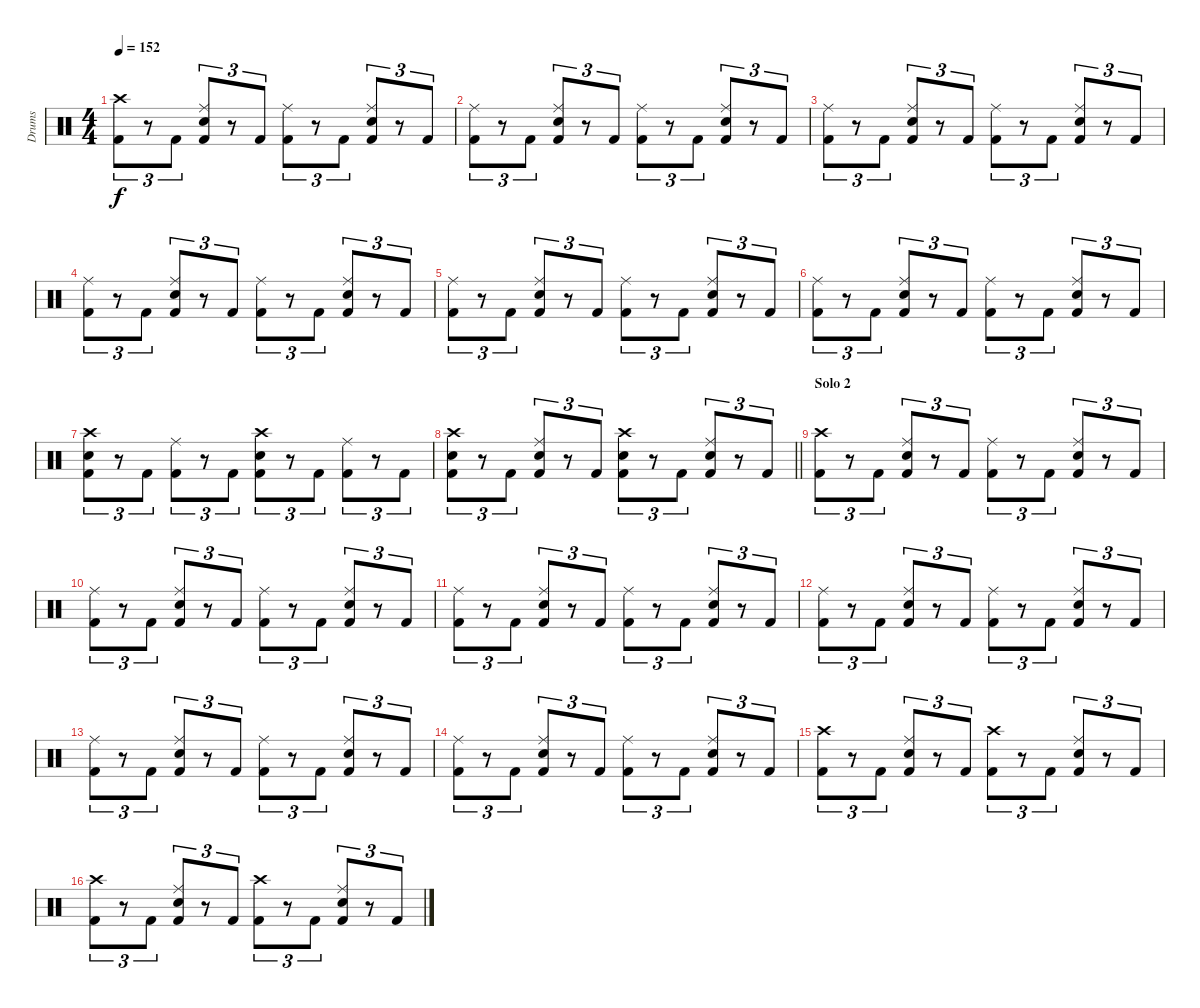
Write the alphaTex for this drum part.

\track ("Drums" "Drums") {instrument percussion}
\staff {score}
\articulation defaults
\ts (4 4)
\tempo 152
\clef neutral
\ks c
("Crash high (hit)" "Kick (hit) 2").8{tu (3 2) dy f} r.8{tu (3 2)} "Kick (hit) 2".8{tu (3 2)} ("Ride (middle)" "Snare (hit) 2" "Kick (hit) 2").8{tu (3 2)} r.8{tu (3 2)} "Kick (hit) 2".8{tu (3 2)} ("Ride (middle)" "Kick (hit) 2").8{tu (3 2)} r.8{tu (3 2)} "Kick (hit) 2".8{tu (3 2)} ("Ride (middle)" "Snare (hit) 2" "Kick (hit) 2").8{tu (3 2)} r.8{tu (3 2)} "Kick (hit) 2".8{tu (3 2)} |
("Ride (middle)" "Kick (hit) 2").8{tu (3 2)} r.8{tu (3 2)} "Kick (hit) 2".8{tu (3 2)} ("Ride (middle)" "Snare (hit) 2" "Kick (hit) 2").8{tu (3 2)} r.8{tu (3 2)} "Kick (hit) 2".8{tu (3 2)} ("Ride (middle)" "Kick (hit) 2").8{tu (3 2)} r.8{tu (3 2)} "Kick (hit) 2".8{tu (3 2)} ("Ride (middle)" "Snare (hit) 2" "Kick (hit) 2").8{tu (3 2)} r.8{tu (3 2)} "Kick (hit) 2".8{tu (3 2)} |
("Ride (middle)" "Kick (hit) 2").8{tu (3 2)} r.8{tu (3 2)} "Kick (hit) 2".8{tu (3 2)} ("Ride (middle)" "Snare (hit) 2" "Kick (hit) 2").8{tu (3 2)} r.8{tu (3 2)} "Kick (hit) 2".8{tu (3 2)} ("Ride (middle)" "Kick (hit) 2").8{tu (3 2)} r.8{tu (3 2)} "Kick (hit) 2".8{tu (3 2)} ("Ride (middle)" "Snare (hit) 2" "Kick (hit) 2").8{tu (3 2)} r.8{tu (3 2)} "Kick (hit) 2".8{tu (3 2)} |
("Ride (middle)" "Kick (hit) 2").8{tu (3 2)} r.8{tu (3 2)} "Kick (hit) 2".8{tu (3 2)} ("Ride (middle)" "Snare (hit) 2" "Kick (hit) 2").8{tu (3 2)} r.8{tu (3 2)} "Kick (hit) 2".8{tu (3 2)} ("Ride (middle)" "Kick (hit) 2").8{tu (3 2)} r.8{tu (3 2)} "Kick (hit) 2".8{tu (3 2)} ("Ride (middle)" "Snare (hit) 2" "Kick (hit) 2").8{tu (3 2)} r.8{tu (3 2)} "Kick (hit) 2".8{tu (3 2)} |
("Ride (middle)" "Kick (hit) 2").8{tu (3 2)} r.8{tu (3 2)} "Kick (hit) 2".8{tu (3 2)} ("Ride (middle)" "Snare (hit) 2" "Kick (hit) 2").8{tu (3 2)} r.8{tu (3 2)} "Kick (hit) 2".8{tu (3 2)} ("Ride (middle)" "Kick (hit) 2").8{tu (3 2)} r.8{tu (3 2)} "Kick (hit) 2".8{tu (3 2)} ("Ride (middle)" "Snare (hit) 2" "Kick (hit) 2").8{tu (3 2)} r.8{tu (3 2)} "Kick (hit) 2".8{tu (3 2)} |
("Ride (middle)" "Kick (hit) 2").8{tu (3 2)} r.8{tu (3 2)} "Kick (hit) 2".8{tu (3 2)} ("Ride (middle)" "Snare (hit) 2" "Kick (hit) 2").8{tu (3 2)} r.8{tu (3 2)} "Kick (hit) 2".8{tu (3 2)} ("Ride (middle)" "Kick (hit) 2").8{tu (3 2)} r.8{tu (3 2)} "Kick (hit) 2".8{tu (3 2)} ("Ride (middle)" "Snare (hit) 2" "Kick (hit) 2").8{tu (3 2)} r.8{tu (3 2)} "Kick (hit) 2".8{tu (3 2)} |
("Crash high (hit)" "Snare (hit) 2" "Kick (hit) 2").8{tu (3 2)} r.8{tu (3 2)} "Kick (hit) 2".8{tu (3 2)} ("Ride (middle)" "Kick (hit) 2").8{tu (3 2)} r.8{tu (3 2)} "Kick (hit) 2".8{tu (3 2)} ("Crash high (hit)" "Snare (hit) 2" "Kick (hit) 2").8{tu (3 2)} r.8{tu (3 2)} "Kick (hit) 2".8{tu (3 2)} ("Ride (middle)" "Kick (hit) 2").8{tu (3 2)} r.8{tu (3 2)} "Kick (hit) 2".8{tu (3 2)} |
\barLineRight lightlight
("Crash high (hit)" "Snare (hit) 2" "Kick (hit) 2").8{tu (3 2)} r.8{tu (3 2)} "Kick (hit) 2".8{tu (3 2)} ("Ride (middle)" "Snare (hit) 2" "Kick (hit) 2").8{tu (3 2)} r.8{tu (3 2)} "Kick (hit) 2".8{tu (3 2)} ("Crash high (hit)" "Snare (hit) 2" "Kick (hit) 2").8{tu (3 2)} r.8{tu (3 2)} "Kick (hit) 2".8{tu (3 2)} ("Ride (middle)" "Snare (hit) 2" "Kick (hit) 2").8{tu (3 2)} r.8{tu (3 2)} "Kick (hit) 2".8{tu (3 2)} |
\section ("" "Solo 2")
("Crash high (hit)" "Kick (hit) 2").8{tu (3 2)} r.8{tu (3 2)} "Kick (hit) 2".8{tu (3 2)} ("Ride (middle)" "Snare (hit) 2" "Kick (hit) 2").8{tu (3 2)} r.8{tu (3 2)} "Kick (hit) 2".8{tu (3 2)} ("Ride (middle)" "Kick (hit) 2").8{tu (3 2)} r.8{tu (3 2)} "Kick (hit) 2".8{tu (3 2)} ("Ride (middle)" "Snare (hit) 2" "Kick (hit) 2").8{tu (3 2)} r.8{tu (3 2)} "Kick (hit) 2".8{tu (3 2)} |
("Ride (middle)" "Kick (hit) 2").8{tu (3 2)} r.8{tu (3 2)} "Kick (hit) 2".8{tu (3 2)} ("Ride (middle)" "Snare (hit) 2" "Kick (hit) 2").8{tu (3 2)} r.8{tu (3 2)} "Kick (hit) 2".8{tu (3 2)} ("Ride (middle)" "Kick (hit) 2").8{tu (3 2)} r.8{tu (3 2)} "Kick (hit) 2".8{tu (3 2)} ("Ride (middle)" "Snare (hit) 2" "Kick (hit) 2").8{tu (3 2)} r.8{tu (3 2)} "Kick (hit) 2".8{tu (3 2)} |
("Ride (middle)" "Kick (hit) 2").8{tu (3 2)} r.8{tu (3 2)} "Kick (hit) 2".8{tu (3 2)} ("Ride (middle)" "Snare (hit) 2" "Kick (hit) 2").8{tu (3 2)} r.8{tu (3 2)} "Kick (hit) 2".8{tu (3 2)} ("Ride (middle)" "Kick (hit) 2").8{tu (3 2)} r.8{tu (3 2)} "Kick (hit) 2".8{tu (3 2)} ("Ride (middle)" "Snare (hit) 2" "Kick (hit) 2").8{tu (3 2)} r.8{tu (3 2)} "Kick (hit) 2".8{tu (3 2)} |
("Ride (middle)" "Kick (hit) 2").8{tu (3 2)} r.8{tu (3 2)} "Kick (hit) 2".8{tu (3 2)} ("Ride (middle)" "Snare (hit) 2" "Kick (hit) 2").8{tu (3 2)} r.8{tu (3 2)} "Kick (hit) 2".8{tu (3 2)} ("Ride (middle)" "Kick (hit) 2").8{tu (3 2)} r.8{tu (3 2)} "Kick (hit) 2".8{tu (3 2)} ("Ride (middle)" "Snare (hit) 2" "Kick (hit) 2").8{tu (3 2)} r.8{tu (3 2)} "Kick (hit) 2".8{tu (3 2)} |
("Ride (middle)" "Kick (hit) 2").8{tu (3 2)} r.8{tu (3 2)} "Kick (hit) 2".8{tu (3 2)} ("Ride (middle)" "Snare (hit) 2" "Kick (hit) 2").8{tu (3 2)} r.8{tu (3 2)} "Kick (hit) 2".8{tu (3 2)} ("Ride (middle)" "Kick (hit) 2").8{tu (3 2)} r.8{tu (3 2)} "Kick (hit) 2".8{tu (3 2)} ("Ride (middle)" "Snare (hit) 2" "Kick (hit) 2").8{tu (3 2)} r.8{tu (3 2)} "Kick (hit) 2".8{tu (3 2)} |
("Ride (middle)" "Kick (hit) 2").8{tu (3 2)} r.8{tu (3 2)} "Kick (hit) 2".8{tu (3 2)} ("Ride (middle)" "Snare (hit) 2" "Kick (hit) 2").8{tu (3 2)} r.8{tu (3 2)} "Kick (hit) 2".8{tu (3 2)} ("Ride (middle)" "Kick (hit) 2").8{tu (3 2)} r.8{tu (3 2)} "Kick (hit) 2".8{tu (3 2)} ("Ride (middle)" "Snare (hit) 2" "Kick (hit) 2").8{tu (3 2)} r.8{tu (3 2)} "Kick (hit) 2".8{tu (3 2)} |
("Crash high (hit)" "Kick (hit) 2").8{tu (3 2)} r.8{tu (3 2)} "Kick (hit) 2".8{tu (3 2)} ("Ride (middle)" "Snare (hit) 2" "Kick (hit) 2").8{tu (3 2)} r.8{tu (3 2)} "Kick (hit) 2".8{tu (3 2)} ("Crash high (hit)" "Kick (hit) 2").8{tu (3 2)} r.8{tu (3 2)} "Kick (hit) 2".8{tu (3 2)} ("Ride (middle)" "Snare (hit) 2" "Kick (hit) 2").8{tu (3 2)} r.8{tu (3 2)} "Kick (hit) 2".8{tu (3 2)} |
("Crash high (hit)" "Kick (hit) 2").8{tu (3 2)} r.8{tu (3 2)} "Kick (hit) 2".8{tu (3 2)} ("Ride (middle)" "Snare (hit) 2" "Kick (hit) 2").8{tu (3 2)} r.8{tu (3 2)} "Kick (hit) 2".8{tu (3 2)} ("Crash high (hit)" "Kick (hit) 2").8{tu (3 2)} r.8{tu (3 2)} "Kick (hit) 2".8{tu (3 2)} ("Ride (middle)" "Snare (hit) 2" "Kick (hit) 2").8{tu (3 2)} r.8{tu (3 2)} "Kick (hit) 2".8{tu (3 2)}
